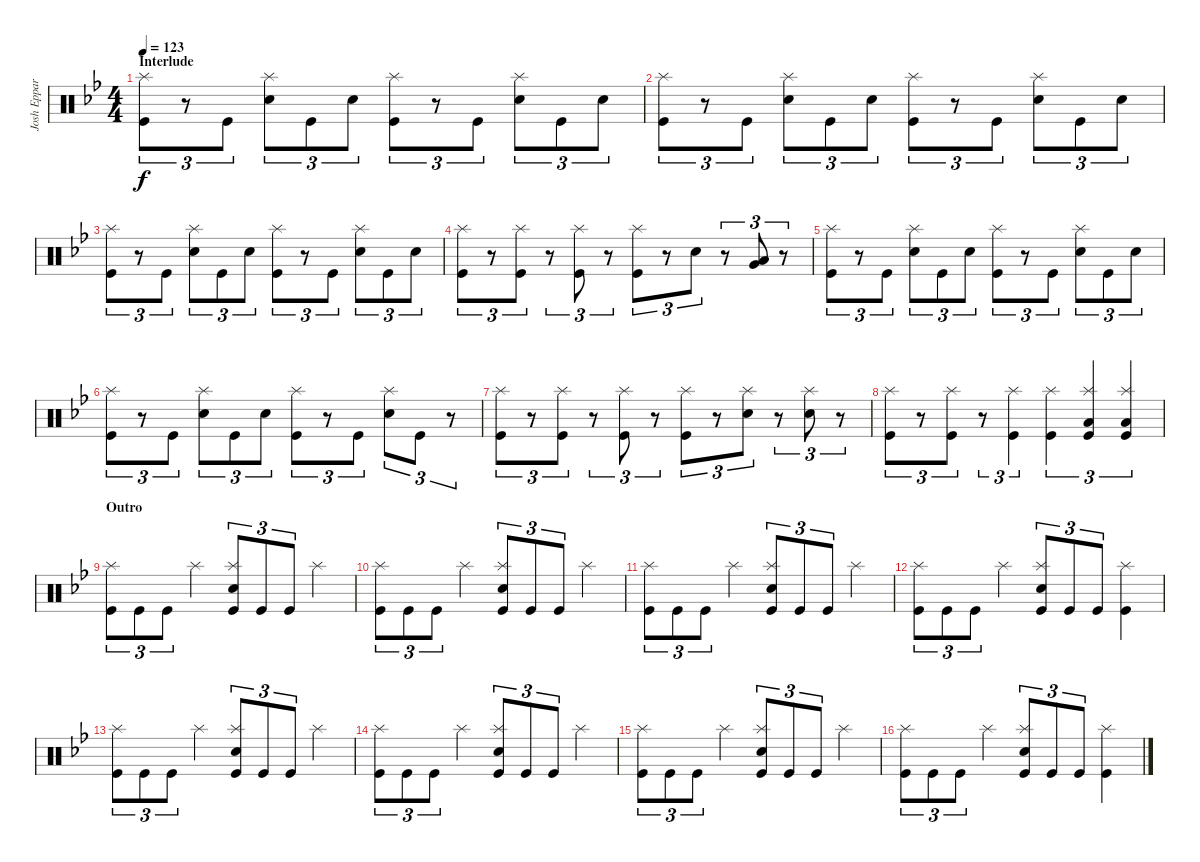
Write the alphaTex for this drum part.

\track ("Josh Eppard" "Josh Eppar") {instrument percussion}
\staff {score}
\articulation defaults
\ts (4 4)
\section ("" "Interlude")
\tempo 123
\clef neutral
\ks gminor
("Kick (hit)" "Splash (hit)").8{tu (3 2) dy f} r.8{tu (3 2)} "Kick (hit)".8{tu (3 2)} ("Snare (hit) 2" "Splash (hit)").8{tu (3 2)} "Kick (hit)".8{tu (3 2)} "Snare (hit) 2".8{tu (3 2)} ("Kick (hit)" "Splash (hit)").8{tu (3 2)} r.8{tu (3 2)} "Kick (hit)".8{tu (3 2)} ("Snare (hit) 2" "Splash (hit)").8{tu (3 2)} "Kick (hit)".8{tu (3 2)} "Snare (hit) 2".8{tu (3 2)} |
("Kick (hit)" "Splash (hit)").8{tu (3 2)} r.8{tu (3 2)} "Kick (hit)".8{tu (3 2)} ("Snare (hit) 2" "Splash (hit)").8{tu (3 2)} "Kick (hit)".8{tu (3 2)} "Snare (hit) 2".8{tu (3 2)} ("Kick (hit)" "Splash (hit)").8{tu (3 2)} r.8{tu (3 2)} "Kick (hit)".8{tu (3 2)} ("Snare (hit) 2" "Splash (hit)").8{tu (3 2)} "Kick (hit)".8{tu (3 2)} "Snare (hit) 2".8{tu (3 2)} |
("Kick (hit)" "Splash (hit)").8{tu (3 2)} r.8{tu (3 2)} "Kick (hit)".8{tu (3 2)} ("Snare (hit) 2" "Splash (hit)").8{tu (3 2)} "Kick (hit)".8{tu (3 2)} "Snare (hit) 2".8{tu (3 2)} ("Kick (hit)" "Splash (hit)").8{tu (3 2)} r.8{tu (3 2)} "Kick (hit)".8{tu (3 2)} ("Snare (hit) 2" "Splash (hit)").8{tu (3 2)} "Kick (hit)".8{tu (3 2)} "Snare (hit) 2".8{tu (3 2)} |
("Kick (hit)" "Splash (hit)").8{tu (3 2)} r.8{tu (3 2)} ("Kick (hit)" "Splash (hit)").8{tu (3 2)} r.8{tu (3 2)} ("Kick (hit)" "Splash (hit)").8{tu (3 2)} r.8{tu (3 2)} ("Kick (hit)" "Splash (hit)").8{tu (3 2)} r.8{tu (3 2)} "Snare (hit) 2".8{tu (3 2)} r.8{tu (3 2)} ("Very Low Tom (hit)" "Low Floor Tom (hit)").8{tu (3 2)} r.8{tu (3 2)} |
("Kick (hit)" "Splash (hit)").8{tu (3 2)} r.8{tu (3 2)} "Kick (hit)".8{tu (3 2)} ("Snare (hit) 2" "Splash (hit)").8{tu (3 2)} "Kick (hit)".8{tu (3 2)} "Snare (hit) 2".8{tu (3 2)} ("Kick (hit)" "Splash (hit)").8{tu (3 2)} r.8{tu (3 2)} "Kick (hit)".8{tu (3 2)} ("Snare (hit) 2" "Splash (hit)").8{tu (3 2)} "Kick (hit)".8{tu (3 2)} "Snare (hit) 2".8{tu (3 2)} |
("Kick (hit)" "Splash (hit)").8{tu (3 2)} r.8{tu (3 2)} "Kick (hit)".8{tu (3 2)} ("Snare (hit) 2" "Splash (hit)").8{tu (3 2)} "Kick (hit)".8{tu (3 2)} "Snare (hit) 2".8{tu (3 2)} ("Kick (hit)" "Splash (hit)").8{tu (3 2)} r.8{tu (3 2)} "Kick (hit)".8{tu (3 2)} ("Snare (hit) 2" "Splash (hit)").8{tu (3 2)} "Kick (hit)".8{tu (3 2)} r.8{tu (3 2)} |
("Kick (hit)" "Splash (hit)").8{tu (3 2)} r.8{tu (3 2)} ("Kick (hit)" "Splash (hit)").8{tu (3 2)} r.8{tu (3 2)} ("Kick (hit)" "Splash (hit)").8{tu (3 2)} r.8{tu (3 2)} ("Kick (hit)" "Splash (hit)").8{tu (3 2)} r.8{tu (3 2)} ("Snare (hit) 2" "Splash (hit)").8{tu (3 2)} r.8{tu (3 2)} ("Snare (hit) 2" "Splash (hit)").8{tu (3 2)} r.8{tu (3 2)} |
("Kick (hit)" "Splash (hit)").8{tu (3 2)} r.8{tu (3 2)} ("Kick (hit)" "Splash (hit)").8{tu (3 2)} r.8{tu (3 2)} ("Kick (hit)" "Splash (hit)").4{tu (3 2)} ("Kick (hit)" "Splash (hit)").4{tu (3 2)} ("Kick (hit)" "Splash (hit)" "Low Tom (hit)").4{tu (3 2)} ("Kick (hit)" "Splash (hit)" "Low Tom (hit)").4{tu (3 2)} |
\section ("" "Outro")
("Kick (hit)" "Splash (hit)").8{tu (3 2)} "Kick (hit)".8{tu (3 2)} "Kick (hit)".8{tu (3 2)} "Splash (hit)".4 ("Kick (hit)" "Splash (hit)" "Snare (hit) 2").8{tu (3 2)} "Kick (hit)".8{tu (3 2)} "Kick (hit)".8{tu (3 2)} "Splash (hit)".4 |
("Kick (hit)" "Splash (hit)").8{tu (3 2)} "Kick (hit)".8{tu (3 2)} "Kick (hit)".8{tu (3 2)} "Splash (hit)".4 ("Kick (hit)" "Splash (hit)" "Snare (hit) 2").8{tu (3 2)} "Kick (hit)".8{tu (3 2)} "Kick (hit)".8{tu (3 2)} "Splash (hit)".4 |
("Kick (hit)" "Splash (hit)").8{tu (3 2)} "Kick (hit)".8{tu (3 2)} "Kick (hit)".8{tu (3 2)} "Splash (hit)".4 ("Kick (hit)" "Splash (hit)" "Snare (hit) 2").8{tu (3 2)} "Kick (hit)".8{tu (3 2)} "Kick (hit)".8{tu (3 2)} "Splash (hit)".4 |
("Kick (hit)" "Splash (hit)").8{tu (3 2)} "Kick (hit)".8{tu (3 2)} "Kick (hit)".8{tu (3 2)} "Splash (hit)".4 ("Kick (hit)" "Splash (hit)" "Snare (hit) 2").8{tu (3 2)} "Kick (hit)".8{tu (3 2)} "Kick (hit)".8{tu (3 2)} ("Splash (hit)" "Kick (hit)").4 |
("Kick (hit)" "Splash (hit)").8{tu (3 2)} "Kick (hit)".8{tu (3 2)} "Kick (hit)".8{tu (3 2)} "Splash (hit)".4 ("Kick (hit)" "Splash (hit)" "Snare (hit) 2").8{tu (3 2)} "Kick (hit)".8{tu (3 2)} "Kick (hit)".8{tu (3 2)} "Splash (hit)".4 |
("Kick (hit)" "Splash (hit)").8{tu (3 2)} "Kick (hit)".8{tu (3 2)} "Kick (hit)".8{tu (3 2)} "Splash (hit)".4 ("Kick (hit)" "Splash (hit)" "Snare (hit) 2").8{tu (3 2)} "Kick (hit)".8{tu (3 2)} "Kick (hit)".8{tu (3 2)} "Splash (hit)".4 |
("Kick (hit)" "Splash (hit)").8{tu (3 2)} "Kick (hit)".8{tu (3 2)} "Kick (hit)".8{tu (3 2)} "Splash (hit)".4 ("Kick (hit)" "Splash (hit)" "Snare (hit) 2").8{tu (3 2)} "Kick (hit)".8{tu (3 2)} "Kick (hit)".8{tu (3 2)} "Splash (hit)".4 |
("Kick (hit)" "Splash (hit)").8{tu (3 2)} "Kick (hit)".8{tu (3 2)} "Kick (hit)".8{tu (3 2)} "Splash (hit)".4 ("Kick (hit)" "Splash (hit)" "Snare (hit) 2").8{tu (3 2)} "Kick (hit)".8{tu (3 2)} "Kick (hit)".8{tu (3 2)} ("Splash (hit)" "Kick (hit)").4
